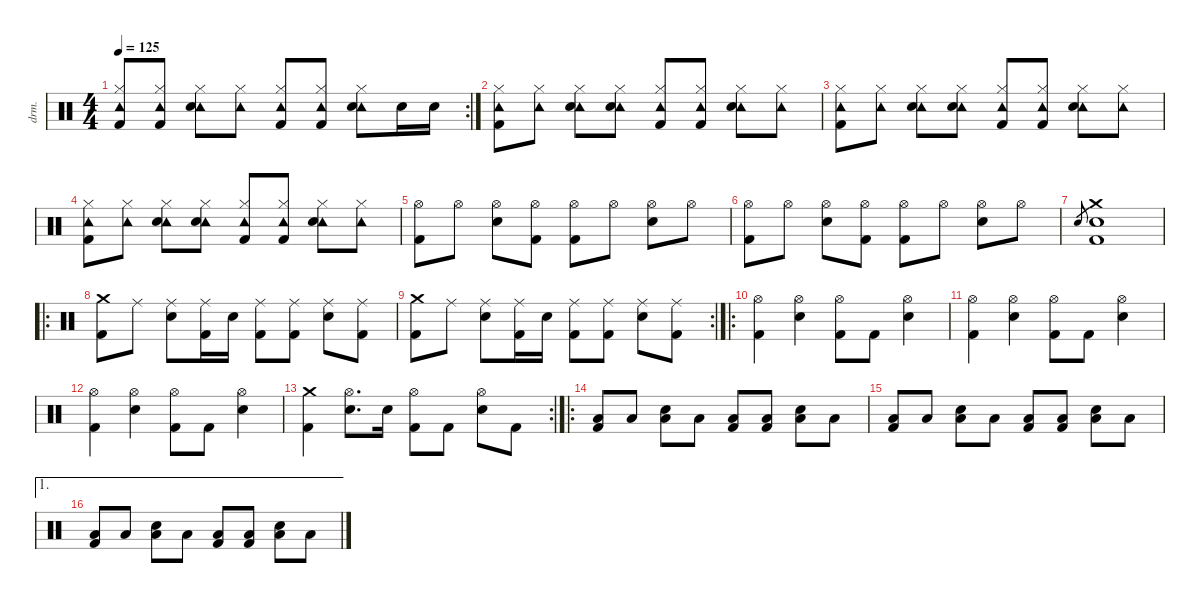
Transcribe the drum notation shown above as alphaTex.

\defaultSystemsLayout 4
\hideDynamics
\bracketExtendMode nobrackets
\otherSystemsTrackNameOrientation horizontal
\track ("Percussions" "drm.") {instrument percussion}
\staff {score}
\articulation defaults
\rc 2
\ts (4 4)
\tempo 125
\clef neutral
\ks c
("Tambourine (hit)" "Hi-Hat (closed)" "Kick (hit) 2").8{dy f} ("Tambourine (hit)" "Hi-Hat (closed)" "Kick (hit) 2").8 ("Tambourine (hit)" "Hi-Hat (closed)" "Snare (hit) 2").8 ("Tambourine (hit)" "Hi-Hat (closed)").8 ("Tambourine (hit)" "Hi-Hat (closed)" "Kick (hit) 2").8 ("Tambourine (hit)" "Hi-Hat (closed)" "Kick (hit) 2").8 ("Tambourine (hit)" "Hi-Hat (closed)" "Snare (hit) 2").8 "Snare (hit) 2".16 "Snare (hit) 2".16 |
("Tambourine (hit)" "Hi-Hat (closed)" "Kick (hit) 2").8 ("Tambourine (hit)" "Hi-Hat (closed)").8 ("Tambourine (hit)" "Hi-Hat (closed)" "Snare (hit) 2").8 ("Tambourine (hit)" "Hi-Hat (closed)" "Snare (hit) 2").8 ("Tambourine (hit)" "Hi-Hat (closed)" "Kick (hit) 2").8 ("Tambourine (hit)" "Hi-Hat (closed)" "Kick (hit) 2").8 ("Tambourine (hit)" "Hi-Hat (closed)" "Snare (hit) 2").8 ("Tambourine (hit)" "Hi-Hat (closed)").8 |
("Tambourine (hit)" "Hi-Hat (closed)" "Kick (hit) 2").8 ("Tambourine (hit)" "Hi-Hat (closed)").8 ("Tambourine (hit)" "Hi-Hat (closed)" "Snare (hit) 2").8 ("Tambourine (hit)" "Hi-Hat (closed)" "Snare (hit) 2").8 ("Tambourine (hit)" "Hi-Hat (closed)" "Kick (hit) 2").8 ("Tambourine (hit)" "Hi-Hat (closed)" "Kick (hit) 2").8 ("Tambourine (hit)" "Hi-Hat (closed)" "Snare (hit) 2").8 ("Tambourine (hit)" "Hi-Hat (closed)").8 |
("Tambourine (hit)" "Hi-Hat (closed)" "Kick (hit) 2").8 ("Tambourine (hit)" "Hi-Hat (closed)").8 ("Tambourine (hit)" "Hi-Hat (closed)" "Snare (hit) 2").8 ("Tambourine (hit)" "Hi-Hat (closed)" "Snare (hit) 2").8 ("Tambourine (hit)" "Hi-Hat (closed)" "Kick (hit) 2").8 ("Tambourine (hit)" "Hi-Hat (closed)" "Kick (hit) 2").8 ("Tambourine (hit)" "Hi-Hat (closed)" "Snare (hit) 2").8 ("Tambourine (hit)" "Hi-Hat (closed)").8 |
("Hi-Hat (open)" "Kick (hit) 2").8 "Hi-Hat (open)".8 ("Hi-Hat (open)" "Snare (hit) 2").8 ("Hi-Hat (open)" "Kick (hit) 2").8 ("Hi-Hat (open)" "Kick (hit) 2").8 "Hi-Hat (open)".8 ("Hi-Hat (open)" "Snare (hit) 2").8 "Hi-Hat (open)".8 |
("Hi-Hat (open)" "Kick (hit) 2").8 "Hi-Hat (open)".8 ("Hi-Hat (open)" "Snare (hit) 2").8 ("Hi-Hat (open)" "Kick (hit) 2").8 ("Hi-Hat (open)" "Kick (hit) 2").8 "Hi-Hat (open)".8 ("Hi-Hat (open)" "Snare (hit) 2").8 "Hi-Hat (open)".8 |
"Electric Snare (hit)".8{gr dy mf} ("Crash medium (hit)" "Snare (hit) 2" "Kick (hit) 2").1{dy f} |
\ro
("Crash medium (hit)" "Kick (hit) 2").8 "Ride (middle)".8 ("Ride (middle)" "Snare (hit) 2").8 ("Ride (middle)" "Kick (hit) 2").16 "Snare (hit) 2".16 ("Ride (middle)" "Kick (hit) 2").8 ("Ride (middle)" "Kick (hit) 2").8 ("Ride (middle)" "Snare (hit) 2").8 ("Ride (middle)" "Kick (hit) 2").8 |
\rc 2
("Crash medium (hit)" "Kick (hit) 2").8 "Ride (middle)".8 ("Ride (middle)" "Snare (hit) 2").8 ("Ride (middle)" "Kick (hit) 2").16 "Snare (hit) 2".16 ("Ride (middle)" "Kick (hit) 2").8 ("Ride (middle)" "Kick (hit) 2").8 ("Ride (middle)" "Snare (hit) 2").8 ("Ride (middle)" "Kick (hit) 2").8 |
\ro
("Hi-Hat (open)" "Kick (hit) 2").4 ("Hi-Hat (open)" "Snare (hit) 2").4 ("Hi-Hat (open)" "Kick (hit) 2").8 "Kick (hit) 2".8 ("Hi-Hat (open)" "Snare (hit) 2").4 |
("Hi-Hat (open)" "Kick (hit) 2").4 ("Hi-Hat (open)" "Snare (hit) 2").4 ("Hi-Hat (open)" "Kick (hit) 2").8 "Kick (hit) 2".8 ("Hi-Hat (open)" "Snare (hit) 2").4 |
("Hi-Hat (open)" "Kick (hit) 2").4 ("Hi-Hat (open)" "Snare (hit) 2").4 ("Hi-Hat (open)" "Kick (hit) 2").8 "Kick (hit) 2".8 ("Hi-Hat (open)" "Snare (hit) 2").4 |
\rc 2
("Crash medium (hit)" "Kick (hit) 2").4 ("Hi-Hat (open)" "Snare (hit) 2").8{d} "Snare (hit) 2".16 ("Hi-Hat (open)" "Kick (hit) 2").8 "Kick (hit) 2".8 ("Hi-Hat (open)" "Snare (hit) 2").8 "Kick (hit) 2".8 |
\ro
("Low Tom (hit)" "Kick (hit) 2").8 "Low Tom (hit)".8 ("Low Tom (hit)" "Snare (hit) 2").8 "Low Tom (hit)".8 ("Low Tom (hit)" "Kick (hit) 2").8 ("Low Tom (hit)" "Kick (hit) 2").8 ("Low Tom (hit)" "Snare (hit) 2").8 "Low Tom (hit)".8 |
("Low Tom (hit)" "Kick (hit) 2").8 "Low Tom (hit)".8 ("Low Tom (hit)" "Snare (hit) 2").8 "Low Tom (hit)".8 ("Low Tom (hit)" "Kick (hit) 2").8 ("Low Tom (hit)" "Kick (hit) 2").8 ("Low Tom (hit)" "Snare (hit) 2").8 "Low Tom (hit)".8 |
\ae 1
("Low Tom (hit)" "Kick (hit) 2").8 "Low Tom (hit)".8 ("Low Tom (hit)" "Snare (hit) 2").8 "Low Tom (hit)".8 ("Low Tom (hit)" "Kick (hit) 2").8 ("Low Tom (hit)" "Kick (hit) 2").8 ("Low Tom (hit)" "Snare (hit) 2").8 "Low Tom (hit)".8
